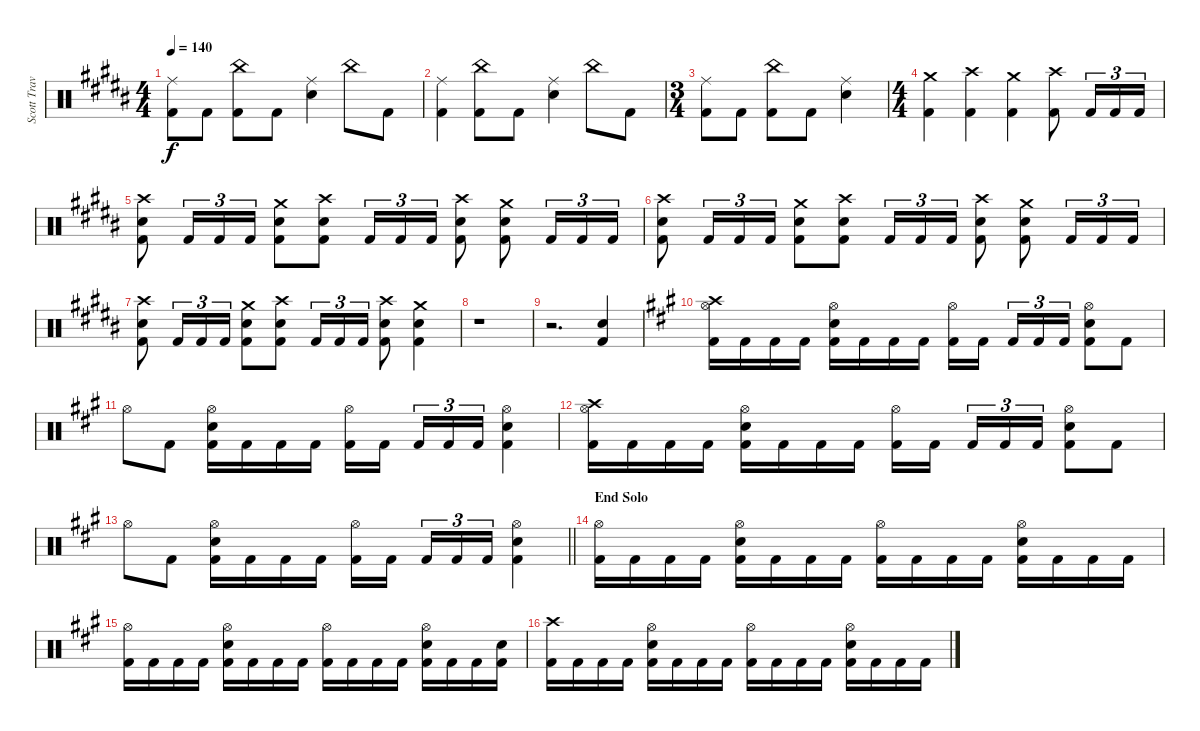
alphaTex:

\track ("Scott Travis" "Scott Trav") {instrument percussion}
\staff {score}
\articulation defaults
\ts (4 4)
\tempo 140
\clef neutral
\ks g#minor
("Ride (middle)" "Kick (hit) 2").8{dy f} "Kick (hit) 2".8 ("China (hit)" "Kick (hit) 2").8 "Kick (hit) 2".8 ("Ride (middle)" "Electric Snare (hit)").4 "China (hit)".8 "Kick (hit) 2".8 |
("Ride (middle)" "Kick (hit) 2").4 ("China (hit)" "Kick (hit) 2").8 "Kick (hit) 2".8 ("Ride (middle)" "Electric Snare (hit)").4 "China (hit)".8 "Kick (hit) 2".8 |
\ts (3 4)
("Ride (middle)" "Kick (hit) 2").8 "Kick (hit) 2".8 ("China (hit)" "Kick (hit) 2").8 "Kick (hit) 2".8 ("Ride (middle)" "Electric Snare (hit)").4 |
\ts (4 4)
("Crash medium (hit)" "Kick (hit) 2").4 ("Crash high (hit)" "Kick (hit) 2").4 ("Crash medium (hit)" "Kick (hit) 2").4 ("Crash high (hit)" "Kick (hit) 2").8 "Kick (hit) 2".16{tu (3 2)} "Kick (hit) 2".16{tu (3 2)} "Kick (hit) 2".16{tu (3 2)} |
("Crash high (hit)" "Electric Snare (hit)" "Kick (hit) 2").8 "Kick (hit) 2".16{tu (3 2)} "Kick (hit) 2".16{tu (3 2)} "Kick (hit) 2".16{tu (3 2)} ("Crash medium (hit)" "Electric Snare (hit)" "Kick (hit) 2").8 ("Crash high (hit)" "Electric Snare (hit)" "Kick (hit) 2").8 "Kick (hit) 2".16{tu (3 2)} "Kick (hit) 2".16{tu (3 2)} "Kick (hit) 2".16{tu (3 2)} ("Crash high (hit)" "Electric Snare (hit)" "Kick (hit) 2").8 ("Crash medium (hit)" "Electric Snare (hit)" "Kick (hit) 2").8 "Kick (hit) 2".16{tu (3 2)} "Kick (hit) 2".16{tu (3 2)} "Kick (hit) 2".16{tu (3 2)} |
("Crash high (hit)" "Electric Snare (hit)" "Kick (hit) 2").8 "Kick (hit) 2".16{tu (3 2)} "Kick (hit) 2".16{tu (3 2)} "Kick (hit) 2".16{tu (3 2)} ("Crash medium (hit)" "Electric Snare (hit)" "Kick (hit) 2").8 ("Crash high (hit)" "Electric Snare (hit)" "Kick (hit) 2").8 "Kick (hit) 2".16{tu (3 2)} "Kick (hit) 2".16{tu (3 2)} "Kick (hit) 2".16{tu (3 2)} ("Crash high (hit)" "Electric Snare (hit)" "Kick (hit) 2").8 ("Crash medium (hit)" "Electric Snare (hit)" "Kick (hit) 2").8 "Kick (hit) 2".16{tu (3 2)} "Kick (hit) 2".16{tu (3 2)} "Kick (hit) 2".16{tu (3 2)} |
("Crash high (hit)" "Electric Snare (hit)" "Kick (hit) 2").8 "Kick (hit) 2".16{tu (3 2)} "Kick (hit) 2".16{tu (3 2)} "Kick (hit) 2".16{tu (3 2)} ("Crash medium (hit)" "Electric Snare (hit)" "Kick (hit) 2").8 ("Crash high (hit)" "Electric Snare (hit)" "Kick (hit) 2").8 "Kick (hit) 2".16{tu (3 2)} "Kick (hit) 2".16{tu (3 2)} "Kick (hit) 2".16{tu (3 2)} ("Crash high (hit)" "Electric Snare (hit)" "Kick (hit) 2").8 ("Crash medium (hit)" "Electric Snare (hit)" "Kick (hit) 2").4 |
r.1 |
r.2{d} ("Electric Snare (hit)" "Kick (hit) 2").4 |
\ks f#minor
("Hi-Hat (open)" "Crash high (hit)" "Kick (hit) 2").16 "Kick (hit) 2".16 "Kick (hit) 2".16 "Kick (hit) 2".16 ("Hi-Hat (open)" "Electric Snare (hit)" "Kick (hit) 2").16 "Kick (hit) 2".16 "Kick (hit) 2".16 "Kick (hit) 2".16 ("Hi-Hat (open)" "Kick (hit) 2").16 "Kick (hit) 2".16{beam splitsecondary} "Kick (hit) 2".16{tu (3 2)} "Kick (hit) 2".16{tu (3 2)} "Kick (hit) 2".16{tu (3 2)} ("Hi-Hat (open)" "Electric Snare (hit)" "Kick (hit) 2").8 "Kick (hit) 2".8 |
"Hi-Hat (open)".8 "Kick (hit) 2".8 ("Hi-Hat (open)" "Electric Snare (hit)" "Kick (hit) 2").16 "Kick (hit) 2".16 "Kick (hit) 2".16 "Kick (hit) 2".16 ("Hi-Hat (open)" "Kick (hit) 2").16 "Kick (hit) 2".16{beam splitsecondary} "Kick (hit) 2".16{tu (3 2)} "Kick (hit) 2".16{tu (3 2)} "Kick (hit) 2".16{tu (3 2)} ("Hi-Hat (open)" "Electric Snare (hit)" "Kick (hit) 2").4 |
("Hi-Hat (open)" "Crash high (hit)" "Kick (hit) 2").16 "Kick (hit) 2".16 "Kick (hit) 2".16 "Kick (hit) 2".16 ("Hi-Hat (open)" "Electric Snare (hit)" "Kick (hit) 2").16 "Kick (hit) 2".16 "Kick (hit) 2".16 "Kick (hit) 2".16 ("Hi-Hat (open)" "Kick (hit) 2").16 "Kick (hit) 2".16{beam splitsecondary} "Kick (hit) 2".16{tu (3 2)} "Kick (hit) 2".16{tu (3 2)} "Kick (hit) 2".16{tu (3 2)} ("Hi-Hat (open)" "Electric Snare (hit)" "Kick (hit) 2").8 "Kick (hit) 2".8 |
\barLineRight lightlight "Hi-Hat (open)".8 "Kick (hit) 2".8
("Hi-Hat (open)" "Electric Snare (hit)" "Kick (hit) 2").16 "Kick (hit) 2".16 "Kick (hit) 2".16 "Kick (hit) 2".16 ("Hi-Hat (open)" "Kick (hit) 2").16 "Kick (hit) 2".16{beam splitsecondary} "Kick (hit) 2".16{tu (3 2)} "Kick (hit) 2".16{tu (3 2)} "Kick (hit) 2".16{tu (3 2)} ("Hi-Hat (open)" "Electric Snare (hit)" "Kick (hit) 2").4 |
\section ("" "End Solo")
("Hi-Hat (open)" "Kick (hit) 2").16 "Kick (hit) 2".16 "Kick (hit) 2".16 "Kick (hit) 2".16 ("Hi-Hat (open)" "Electric Snare (hit)" "Kick (hit) 2").16 "Kick (hit) 2".16 "Kick (hit) 2".16 "Kick (hit) 2".16 ("Hi-Hat (open)" "Kick (hit) 2").16 "Kick (hit) 2".16 "Kick (hit) 2".16 "Kick (hit) 2".16 ("Hi-Hat (open)" "Electric Snare (hit)" "Kick (hit) 2").16 "Kick (hit) 2".16 "Kick (hit) 2".16 "Kick (hit) 2".16 |
("Hi-Hat (open)" "Kick (hit) 2").16 "Kick (hit) 2".16 "Kick (hit) 2".16 "Kick (hit) 2".16 ("Hi-Hat (open)" "Electric Snare (hit)" "Kick (hit) 2").16 "Kick (hit) 2".16 "Kick (hit) 2".16 "Kick (hit) 2".16 ("Hi-Hat (open)" "Kick (hit) 2").16 "Kick (hit) 2".16 "Kick (hit) 2".16 "Kick (hit) 2".16 ("Hi-Hat (open)" "Electric Snare (hit)" "Kick (hit) 2").16 "Kick (hit) 2".16 "Kick (hit) 2".16 ("Electric Snare (hit)" "Kick (hit) 2").16 |
("Crash high (hit)" "Kick (hit) 2").16 "Kick (hit) 2".16 "Kick (hit) 2".16 "Kick (hit) 2".16 ("Hi-Hat (open)" "Electric Snare (hit)" "Kick (hit) 2").16 "Kick (hit) 2".16 "Kick (hit) 2".16 "Kick (hit) 2".16 ("Hi-Hat (open)" "Kick (hit) 2").16 "Kick (hit) 2".16 "Kick (hit) 2".16 "Kick (hit) 2".16 ("Hi-Hat (open)" "Electric Snare (hit)" "Kick (hit) 2").16 "Kick (hit) 2".16 "Kick (hit) 2".16 "Kick (hit) 2".16
